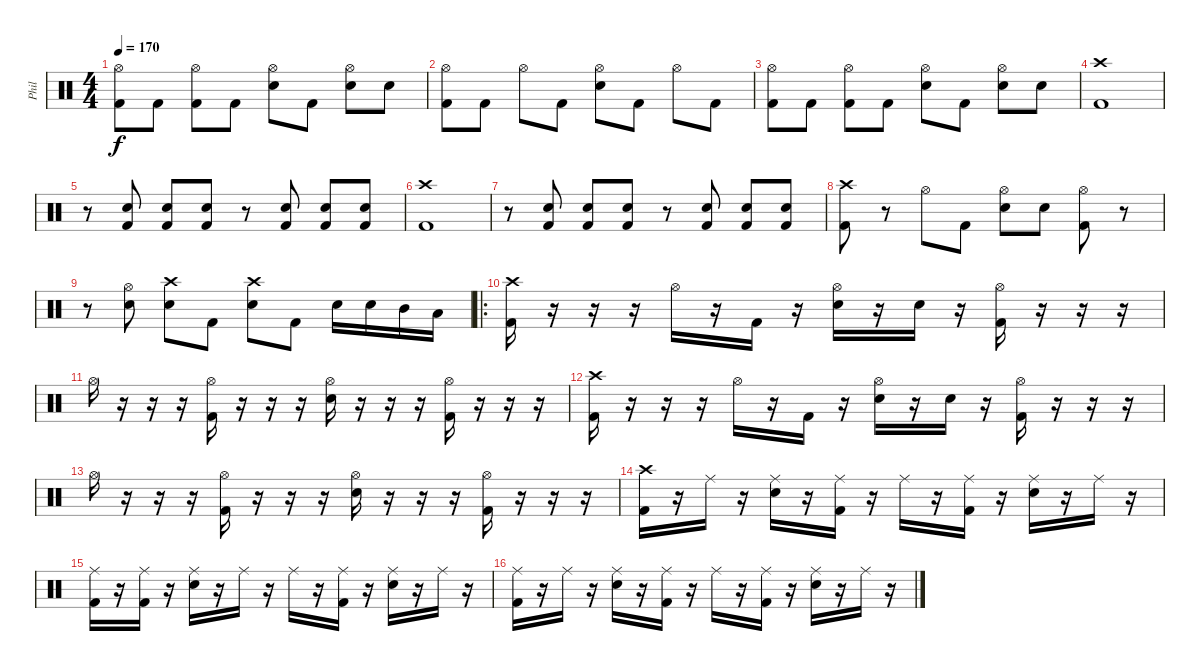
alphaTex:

\track ("Phil" "Phil") {instrument percussion}
\staff {score}
\articulation defaults
\ts (4 4)
\tempo 170
\clef neutral
\ks c
("Hi-Hat (open)" "Kick (hit) 2").8{dy f} "Kick (hit) 2".8 ("Hi-Hat (open)" "Kick (hit) 2").8 "Kick (hit) 2".8 ("Hi-Hat (open)" "Electric Snare (hit)").8 "Kick (hit) 2".8 ("Hi-Hat (open)" "Electric Snare (hit)").8 "Electric Snare (hit)".8 |
("Hi-Hat (open)" "Kick (hit) 2").8 "Kick (hit) 2".8 "Hi-Hat (open)".8 "Kick (hit) 2".8 ("Hi-Hat (open)" "Electric Snare (hit)").8 "Kick (hit) 2".8 "Hi-Hat (open)".8 "Kick (hit) 2".8 |
("Hi-Hat (open)" "Kick (hit) 2").8 "Kick (hit) 2".8 ("Hi-Hat (open)" "Kick (hit) 2").8 "Kick (hit) 2".8 ("Hi-Hat (open)" "Electric Snare (hit)").8 "Kick (hit) 2".8 ("Hi-Hat (open)" "Electric Snare (hit)").8 "Electric Snare (hit)".8 |
("Crash high (hit)" "Kick (hit) 2").1 |
r.8 ("Electric Snare (hit)" "Kick (hit) 2").8 ("Electric Snare (hit)" "Kick (hit) 2").8 ("Electric Snare (hit)" "Kick (hit) 2").8 r.8 ("Electric Snare (hit)" "Kick (hit) 2").8 ("Electric Snare (hit)" "Kick (hit) 2").8 ("Electric Snare (hit)" "Kick (hit) 2").8 |
("Crash high (hit)" "Kick (hit) 2").1 |
r.8 ("Electric Snare (hit)" "Kick (hit) 2").8 ("Electric Snare (hit)" "Kick (hit) 2").8 ("Electric Snare (hit)" "Kick (hit) 2").8 r.8 ("Electric Snare (hit)" "Kick (hit) 2").8 ("Electric Snare (hit)" "Kick (hit) 2").8 ("Electric Snare (hit)" "Kick (hit) 2").8 |
("Crash high (hit)" "Kick (hit) 2").8 r.8 "Hi-Hat (open)".8 "Kick (hit) 2".8 ("Hi-Hat (open)" "Electric Snare (hit)").8 "Electric Snare (hit)".8 ("Hi-Hat (open)" "Kick (hit) 2").8 r.8 |
r.8 ("Hi-Hat (open)" "Electric Snare (hit)").8 ("Crash high (hit)" "Electric Snare (hit)").8 "Kick (hit) 2".8 ("Crash high (hit)" "Electric Snare (hit)").8 "Kick (hit) 2".8 "Electric Snare (hit)".16 "Electric Snare (hit)".16 "Mid Tom (hit)".16 "Low Tom (hit)".16 |
\ro
("Crash high (hit)" "Kick (hit) 2").16 r.16 r.16 r.16 "Hi-Hat (open)".16 r.16 "Kick (hit) 2".16 r.16 ("Hi-Hat (open)" "Electric Snare (hit)").16 r.16 "Electric Snare (hit)".16 r.16 ("Hi-Hat (open)" "Kick (hit) 2").16 r.16 r.16 r.16 |
"Hi-Hat (open)".16 r.16 r.16 r.16 ("Hi-Hat (open)" "Kick (hit) 2").16 r.16 r.16 r.16 ("Hi-Hat (open)" "Electric Snare (hit)").16 r.16 r.16 r.16 ("Hi-Hat (open)" "Kick (hit) 2").16 r.16 r.16 r.16 |
("Crash high (hit)" "Kick (hit) 2").16 r.16 r.16 r.16 "Hi-Hat (open)".16 r.16 "Kick (hit) 2".16 r.16 ("Hi-Hat (open)" "Electric Snare (hit)").16 r.16 "Electric Snare (hit)".16 r.16 ("Hi-Hat (open)" "Kick (hit) 2").16 r.16 r.16 r.16 |
"Hi-Hat (open)".16 r.16 r.16 r.16 ("Hi-Hat (open)" "Kick (hit) 2").16 r.16 r.16 r.16 ("Hi-Hat (open)" "Electric Snare (hit)").16 r.16 r.16 r.16 ("Hi-Hat (open)" "Kick (hit) 2").16 r.16 r.16 r.16 |
("Crash high (hit)" "Kick (hit) 2").16 r.16 "Ride (middle)".16 r.16 ("Ride (middle)" "Electric Snare (hit)").16 r.16 ("Ride (middle)" "Kick (hit) 2").16 r.16 "Ride (middle)".16 r.16 ("Ride (middle)" "Kick (hit) 2").16 r.16 ("Ride (middle)" "Electric Snare (hit)").16 r.16 "Ride (middle)".16 r.16 |
("Ride (middle)" "Kick (hit) 2").16 r.16 ("Ride (middle)" "Kick (hit) 2").16 r.16 ("Ride (middle)" "Electric Snare (hit)").16 r.16 "Ride (middle)".16 r.16 "Ride (middle)".16 r.16 ("Ride (middle)" "Kick (hit) 2").16 r.16 ("Ride (middle)" "Electric Snare (hit)").16 r.16 "Ride (middle)".16 r.16 |
("Ride (middle)" "Kick (hit) 2").16 r.16 "Ride (middle)".16 r.16 ("Ride (middle)" "Electric Snare (hit)").16 r.16 ("Ride (middle)" "Kick (hit) 2").16 r.16 "Ride (middle)".16 r.16 ("Ride (middle)" "Kick (hit) 2").16 r.16 ("Ride (middle)" "Electric Snare (hit)").16 r.16 "Ride (middle)".16 r.16
